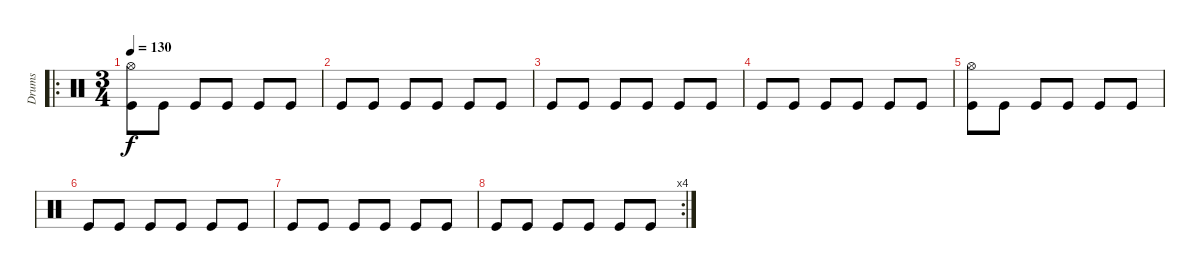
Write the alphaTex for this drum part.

\track ("Drums" "Drums") {instrument percussion}
\staff {score}
\articulation defaults
\ro
\ts (3 4)
\tempo 130
\clef neutral
\ks c
("Hi-Hat (open)" "Kick (hit)").8{dy f} "Kick (hit)".8 "Kick (hit)".8 "Kick (hit)".8 "Kick (hit)".8 "Kick (hit)".8 |
"Kick (hit)".8 "Kick (hit)".8 "Kick (hit)".8 "Kick (hit)".8 "Kick (hit)".8 "Kick (hit)".8 |
"Kick (hit)".8 "Kick (hit)".8 "Kick (hit)".8 "Kick (hit)".8 "Kick (hit)".8 "Kick (hit)".8 |
"Kick (hit)".8 "Kick (hit)".8 "Kick (hit)".8 "Kick (hit)".8 "Kick (hit)".8 "Kick (hit)".8 |
("Hi-Hat (open)" "Kick (hit)").8 "Kick (hit)".8 "Kick (hit)".8 "Kick (hit)".8 "Kick (hit)".8 "Kick (hit)".8 |
"Kick (hit)".8 "Kick (hit)".8 "Kick (hit)".8 "Kick (hit)".8 "Kick (hit)".8 "Kick (hit)".8 |
"Kick (hit)".8 "Kick (hit)".8 "Kick (hit)".8 "Kick (hit)".8 "Kick (hit)".8 "Kick (hit)".8 |
\rc 4 "Kick (hit)".8 "Kick (hit)".8 "Kick (hit)".8 "Kick (hit)".8 "Kick (hit)".8 "Kick (hit)".8
